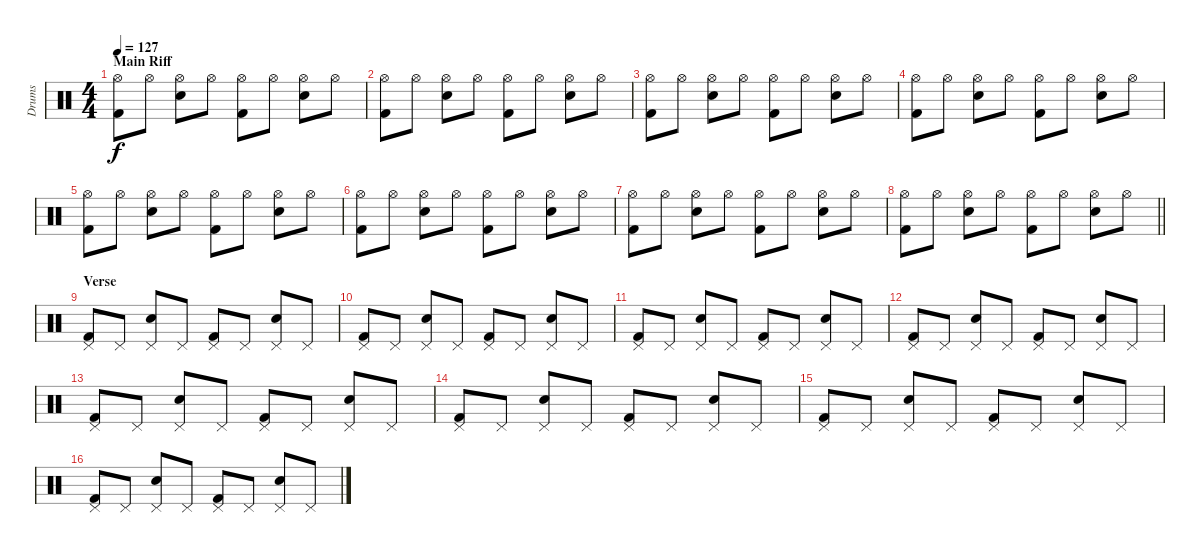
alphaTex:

\track ("Drums" "Drums") {instrument percussion}
\staff {score}
\articulation defaults
\ts (4 4)
\section ("" "Main Riff")
\tempo 127
\clef neutral
\ks c
("Hi-Hat (open)" "Kick (hit) 2").8{dy f} "Hi-Hat (open)".8 ("Hi-Hat (open)" "Electric Snare (hit)").8 "Hi-Hat (open)".8 ("Hi-Hat (open)" "Kick (hit) 2").8 "Hi-Hat (open)".8 ("Hi-Hat (open)" "Electric Snare (hit)").8 "Hi-Hat (open)".8 |
("Hi-Hat (open)" "Kick (hit) 2").8 "Hi-Hat (open)".8 ("Hi-Hat (open)" "Electric Snare (hit)").8 "Hi-Hat (open)".8 ("Hi-Hat (open)" "Kick (hit) 2").8 "Hi-Hat (open)".8 ("Hi-Hat (open)" "Electric Snare (hit)").8 "Hi-Hat (open)".8 |
("Hi-Hat (open)" "Kick (hit) 2").8 "Hi-Hat (open)".8 ("Hi-Hat (open)" "Electric Snare (hit)").8 "Hi-Hat (open)".8 ("Hi-Hat (open)" "Kick (hit) 2").8 "Hi-Hat (open)".8 ("Hi-Hat (open)" "Electric Snare (hit)").8 "Hi-Hat (open)".8 |
("Hi-Hat (open)" "Kick (hit) 2").8 "Hi-Hat (open)".8 ("Hi-Hat (open)" "Electric Snare (hit)").8 "Hi-Hat (open)".8 ("Hi-Hat (open)" "Kick (hit) 2").8 "Hi-Hat (open)".8 ("Hi-Hat (open)" "Electric Snare (hit)").8 "Hi-Hat (open)".8 |
("Hi-Hat (open)" "Kick (hit) 2").8 "Hi-Hat (open)".8 ("Hi-Hat (open)" "Electric Snare (hit)").8 "Hi-Hat (open)".8 ("Hi-Hat (open)" "Kick (hit) 2").8 "Hi-Hat (open)".8 ("Hi-Hat (open)" "Electric Snare (hit)").8 "Hi-Hat (open)".8 |
("Hi-Hat (open)" "Kick (hit) 2").8 "Hi-Hat (open)".8 ("Hi-Hat (open)" "Electric Snare (hit)").8 "Hi-Hat (open)".8 ("Hi-Hat (open)" "Kick (hit) 2").8 "Hi-Hat (open)".8 ("Hi-Hat (open)" "Electric Snare (hit)").8 "Hi-Hat (open)".8 |
("Hi-Hat (open)" "Kick (hit) 2").8 "Hi-Hat (open)".8 ("Hi-Hat (open)" "Electric Snare (hit)").8 "Hi-Hat (open)".8 ("Hi-Hat (open)" "Kick (hit) 2").8 "Hi-Hat (open)".8 ("Hi-Hat (open)" "Electric Snare (hit)").8 "Hi-Hat (open)".8 |
\barLineRight lightlight
("Hi-Hat (open)" "Kick (hit) 2").8 "Hi-Hat (open)".8 ("Hi-Hat (open)" "Electric Snare (hit)").8 "Hi-Hat (open)".8 ("Hi-Hat (open)" "Kick (hit) 2").8 "Hi-Hat (open)".8 ("Hi-Hat (open)" "Electric Snare (hit)").8 "Hi-Hat (open)".8 |
\section ("" "Verse")
("Pedal Hi-Hat (hit)" "Kick (hit) 2").8 "Pedal Hi-Hat (hit)".8 ("Pedal Hi-Hat (hit)" "Electric Snare (hit)").8 "Pedal Hi-Hat (hit)".8 ("Pedal Hi-Hat (hit)" "Kick (hit) 2").8 "Pedal Hi-Hat (hit)".8 ("Pedal Hi-Hat (hit)" "Electric Snare (hit)").8 "Pedal Hi-Hat (hit)".8 |
("Pedal Hi-Hat (hit)" "Kick (hit) 2").8 "Pedal Hi-Hat (hit)".8 ("Pedal Hi-Hat (hit)" "Electric Snare (hit)").8 "Pedal Hi-Hat (hit)".8 ("Pedal Hi-Hat (hit)" "Kick (hit) 2").8 "Pedal Hi-Hat (hit)".8 ("Pedal Hi-Hat (hit)" "Electric Snare (hit)").8 "Pedal Hi-Hat (hit)".8 |
("Pedal Hi-Hat (hit)" "Kick (hit) 2").8 "Pedal Hi-Hat (hit)".8 ("Pedal Hi-Hat (hit)" "Electric Snare (hit)").8 "Pedal Hi-Hat (hit)".8 ("Pedal Hi-Hat (hit)" "Kick (hit) 2").8 "Pedal Hi-Hat (hit)".8 ("Pedal Hi-Hat (hit)" "Electric Snare (hit)").8 "Pedal Hi-Hat (hit)".8 |
("Pedal Hi-Hat (hit)" "Kick (hit) 2").8 "Pedal Hi-Hat (hit)".8 ("Pedal Hi-Hat (hit)" "Electric Snare (hit)").8 "Pedal Hi-Hat (hit)".8 ("Pedal Hi-Hat (hit)" "Kick (hit) 2").8 "Pedal Hi-Hat (hit)".8 ("Pedal Hi-Hat (hit)" "Electric Snare (hit)").8 "Pedal Hi-Hat (hit)".8 |
("Pedal Hi-Hat (hit)" "Kick (hit) 2").8 "Pedal Hi-Hat (hit)".8 ("Pedal Hi-Hat (hit)" "Electric Snare (hit)").8 "Pedal Hi-Hat (hit)".8 ("Pedal Hi-Hat (hit)" "Kick (hit) 2").8 "Pedal Hi-Hat (hit)".8 ("Pedal Hi-Hat (hit)" "Electric Snare (hit)").8 "Pedal Hi-Hat (hit)".8 |
("Pedal Hi-Hat (hit)" "Kick (hit) 2").8 "Pedal Hi-Hat (hit)".8 ("Pedal Hi-Hat (hit)" "Electric Snare (hit)").8 "Pedal Hi-Hat (hit)".8 ("Pedal Hi-Hat (hit)" "Kick (hit) 2").8 "Pedal Hi-Hat (hit)".8 ("Pedal Hi-Hat (hit)" "Electric Snare (hit)").8 "Pedal Hi-Hat (hit)".8 |
("Pedal Hi-Hat (hit)" "Kick (hit) 2").8 "Pedal Hi-Hat (hit)".8 ("Pedal Hi-Hat (hit)" "Electric Snare (hit)").8 "Pedal Hi-Hat (hit)".8 ("Pedal Hi-Hat (hit)" "Kick (hit) 2").8 "Pedal Hi-Hat (hit)".8 ("Pedal Hi-Hat (hit)" "Electric Snare (hit)").8 "Pedal Hi-Hat (hit)".8 |
("Pedal Hi-Hat (hit)" "Kick (hit) 2").8 "Pedal Hi-Hat (hit)".8 ("Pedal Hi-Hat (hit)" "Electric Snare (hit)").8 "Pedal Hi-Hat (hit)".8 ("Pedal Hi-Hat (hit)" "Kick (hit) 2").8 "Pedal Hi-Hat (hit)".8 ("Pedal Hi-Hat (hit)" "Electric Snare (hit)").8 "Pedal Hi-Hat (hit)".8
